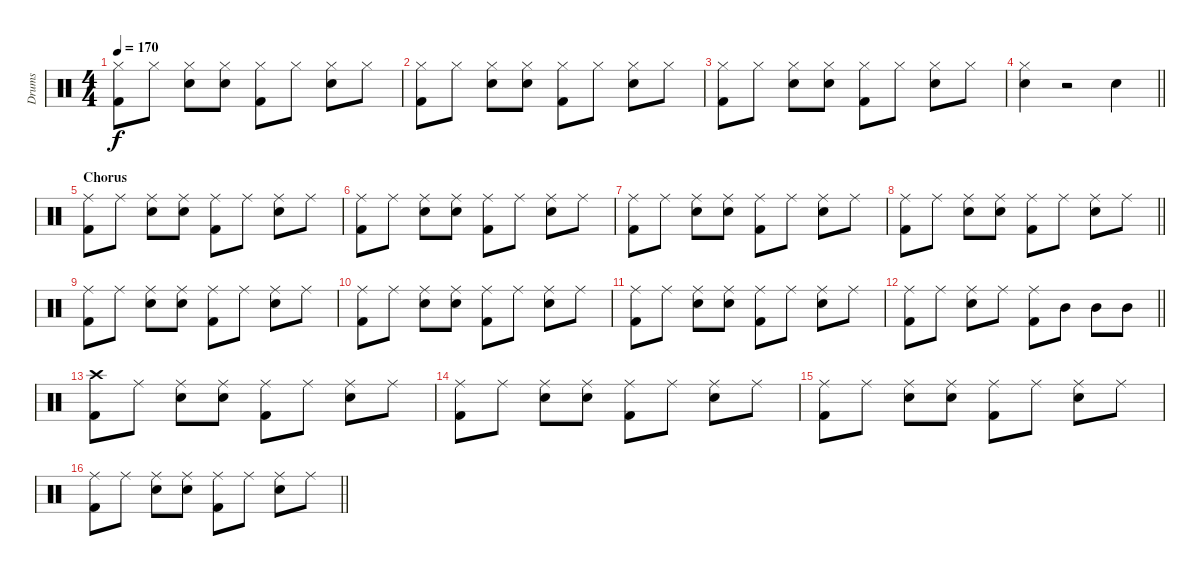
\track ("Drums" "Drums") {instrument percussion}
\staff {score}
\articulation defaults
\ts (4 4)
\tempo 170
\clef neutral
\ks c
("Hi-Hat (closed)" "Kick (hit) 2").8{dy f} "Hi-Hat (closed)".8 ("Hi-Hat (closed)" "Snare (hit) 2").8 ("Hi-Hat (closed)" "Snare (hit) 2").8 ("Hi-Hat (closed)" "Kick (hit) 2").8 "Hi-Hat (closed)".8 ("Hi-Hat (closed)" "Snare (hit) 2").8 "Hi-Hat (closed)".8 |
("Hi-Hat (closed)" "Kick (hit) 2").8 "Hi-Hat (closed)".8 ("Hi-Hat (closed)" "Snare (hit) 2").8 ("Hi-Hat (closed)" "Snare (hit) 2").8 ("Hi-Hat (closed)" "Kick (hit) 2").8 "Hi-Hat (closed)".8 ("Hi-Hat (closed)" "Snare (hit) 2").8 "Hi-Hat (closed)".8 |
("Hi-Hat (closed)" "Kick (hit) 2").8 "Hi-Hat (closed)".8 ("Hi-Hat (closed)" "Snare (hit) 2").8 ("Hi-Hat (closed)" "Snare (hit) 2").8 ("Hi-Hat (closed)" "Kick (hit) 2").8 "Hi-Hat (closed)".8 ("Hi-Hat (closed)" "Snare (hit) 2").8 "Hi-Hat (closed)".8 |
\barLineRight lightlight
("Hi-Hat (closed)" "Snare (hit) 2").4 r.2 "Snare (hit) 2".4 |
\section ("" "Chorus ")
("Ride (middle)" "Kick (hit) 2").8 "Ride (middle)".8 ("Ride (middle)" "Snare (hit) 2").8 ("Ride (middle)" "Snare (hit) 2").8 ("Ride (middle)" "Kick (hit) 2").8 "Ride (middle)".8 ("Ride (middle)" "Snare (hit) 2").8 "Ride (middle)".8 |
("Ride (middle)" "Kick (hit) 2").8 "Ride (middle)".8 ("Ride (middle)" "Snare (hit) 2").8 ("Ride (middle)" "Snare (hit) 2").8 ("Ride (middle)" "Kick (hit) 2").8 "Ride (middle)".8 ("Ride (middle)" "Snare (hit) 2").8 "Ride (middle)".8 |
("Ride (middle)" "Kick (hit) 2").8 "Ride (middle)".8 ("Ride (middle)" "Snare (hit) 2").8 ("Ride (middle)" "Snare (hit) 2").8 ("Ride (middle)" "Kick (hit) 2").8 "Ride (middle)".8 ("Ride (middle)" "Snare (hit) 2").8 "Ride (middle)".8 |
\barLineRight lightlight
("Ride (middle)" "Kick (hit) 2").8 "Ride (middle)".8 ("Ride (middle)" "Snare (hit) 2").8 ("Ride (middle)" "Snare (hit) 2").8 ("Ride (middle)" "Kick (hit) 2").8 "Ride (middle)".8 ("Ride (middle)" "Snare (hit) 2").8 "Ride (middle)".8 |
("Ride (middle)" "Kick (hit) 2").8 "Ride (middle)".8 ("Ride (middle)" "Snare (hit) 2").8 ("Ride (middle)" "Snare (hit) 2").8 ("Ride (middle)" "Kick (hit) 2").8 "Ride (middle)".8 ("Ride (middle)" "Snare (hit) 2").8 "Ride (middle)".8 |
("Ride (middle)" "Kick (hit) 2").8 "Ride (middle)".8 ("Ride (middle)" "Snare (hit) 2").8 ("Ride (middle)" "Snare (hit) 2").8 ("Ride (middle)" "Kick (hit) 2").8 "Ride (middle)".8 ("Ride (middle)" "Snare (hit) 2").8 "Ride (middle)".8 |
("Ride (middle)" "Kick (hit) 2").8 "Ride (middle)".8 ("Ride (middle)" "Snare (hit) 2").8 ("Ride (middle)" "Snare (hit) 2").8 ("Ride (middle)" "Kick (hit) 2").8 "Ride (middle)".8 ("Ride (middle)" "Snare (hit) 2").8 "Ride (middle)".8 |
\barLineRight lightlight
("Ride (middle)" "Kick (hit) 2").8 "Ride (middle)".8 ("Ride (middle)" "Snare (hit) 2").8 "Ride (middle)".8 ("Ride (middle)" "Kick (hit) 2").8 "Mid Tom (hit)".8 "Mid Tom (hit)".8 "Mid Tom (hit)".8 |
("Crash high (hit)" "Kick (hit) 2").8 "Ride (middle)".8 ("Ride (middle)" "Snare (hit) 2").8 ("Ride (middle)" "Snare (hit) 2").8 ("Ride (middle)" "Kick (hit) 2").8 "Ride (middle)".8 ("Ride (middle)" "Snare (hit) 2").8 "Ride (middle)".8 |
("Ride (middle)" "Kick (hit) 2").8 "Ride (middle)".8 ("Ride (middle)" "Snare (hit) 2").8 ("Ride (middle)" "Snare (hit) 2").8 ("Ride (middle)" "Kick (hit) 2").8 "Ride (middle)".8 ("Ride (middle)" "Snare (hit) 2").8 "Ride (middle)".8 |
("Ride (middle)" "Kick (hit) 2").8 "Ride (middle)".8 ("Ride (middle)" "Snare (hit) 2").8 ("Ride (middle)" "Snare (hit) 2").8 ("Ride (middle)" "Kick (hit) 2").8 "Ride (middle)".8 ("Ride (middle)" "Snare (hit) 2").8 "Ride (middle)".8 |
\barLineRight lightlight
("Ride (middle)" "Kick (hit) 2").8 "Ride (middle)".8 ("Ride (middle)" "Snare (hit) 2").8 ("Ride (middle)" "Snare (hit) 2").8 ("Ride (middle)" "Kick (hit) 2").8 "Ride (middle)".8 ("Ride (middle)" "Snare (hit) 2").8 "Ride (middle)".8
